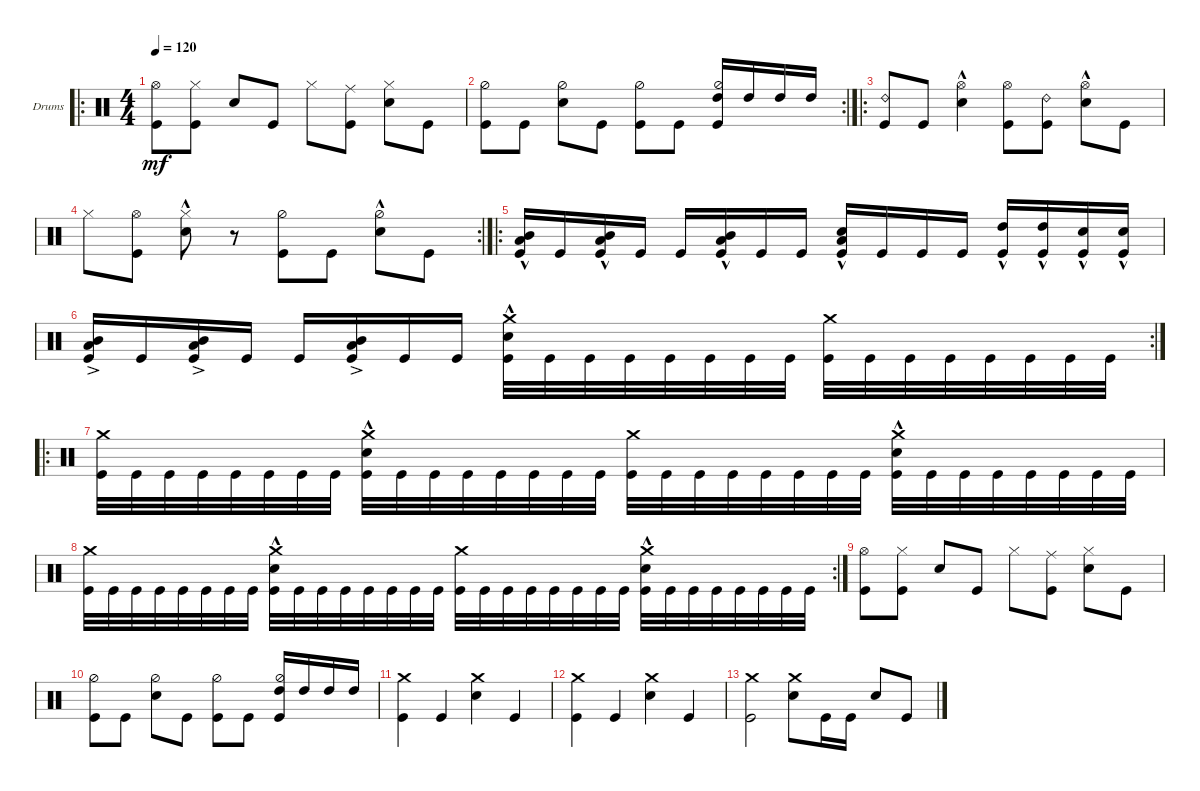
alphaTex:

\defaultSystemsLayout 4
\bracketExtendMode groupsimilarinstruments
\firstSystemTrackNameOrientation horizontal
\otherSystemsTrackNameOrientation horizontal
\track ("Drumkit" "Drums") {instrument percussion}
\staff {score}
\articulation defaults
\ro
\ts (4 4)
\tempo 120
\clef neutral
\ks c
("Hi-Hat (open)" "Kick (hit)").8{dy mf} ("Hi-Hat (closed)" "Kick (hit)").8 "Snare (hit) 2".8 "Kick (hit)".8 "Hi-Hat (closed)".8 ("Ride (middle)" "Kick (hit)").8 ("Hi-Hat (closed)" "Snare (hit) 2").8 "Kick (hit)".8 |
\rc 2
("Kick (hit)" "Hi-Hat (half)").8 "Kick (hit)".8 ("Snare (hit) 2" "Hi-Hat (half)").8 "Kick (hit)".8 ("Kick (hit)" "Hi-Hat (half)").8 "Kick (hit)".8 ("Hi-Hat (half)" "Kick (hit)" "High Tom (hit)").16 "High Tom (hit)".16 "High Tom (hit)".16 "High Tom (hit)".16 |
\ro
("Kick (hit)" "Ride (bell) 2").8 "Kick (hit)".8 ("Snare (hit) 2"{hac} "Hi-Hat (open)").4 ("Kick (hit)" "Hi-Hat (open)").8 ("Kick (hit)" "Ride (bell) 2").8 ("Hi-Hat (open)" "Snare (hit) 2"{hac}).8 "Kick (hit)".8 |
\rc 2 "Hi-Hat (closed)".8
("Hi-Hat (open)" "Kick (hit)").8 ("Snare (hit) 2"{hac} "Hi-Hat (closed)").8 r.8 ("Kick (hit)" "Hi-Hat (half)").8 "Kick (hit)".8 ("Snare (hit) 2"{hac} "Hi-Hat (half)").8 "Kick (hit)".8 |
\ro
("Kick (hit)" "Low Tom (hit)"{hac} "Mid Tom (hit)"{hac}).16 "Kick (hit)".16 ("Kick (hit)" "Low Tom (hit)"{hac} "Mid Tom (hit)"{hac}).16 "Kick (hit)".16 "Kick (hit)".16 ("Kick (hit)" "Low Tom (hit)"{hac} "Mid Tom (hit)"{hac}).16 "Kick (hit)".16 "Kick (hit)".16 ("Kick (hit)" "Snare (hit) 2"{hac} "Low Tom (hit)"{hac}).16 "Kick (hit)".16 "Kick (hit)".16 "Kick (hit)".16 ("Kick (hit)" "High Tom (hit)"{hac}).16 ("Kick (hit)" "High Tom (hit)"{hac}).16 ("Kick (hit)" "Snare (hit) 2"{hac}).16 ("Kick (hit)" "Snare (hit) 2"{hac}).16 |
\rc 2
("Kick (hit)" "Low Tom (hit)"{ac} "Mid Tom (hit)"{ac}).16 "Kick (hit)".16 ("Kick (hit)" "Low Tom (hit)"{ac} "Mid Tom (hit)"{ac}).16 "Kick (hit)".16 "Kick (hit)".16 ("Kick (hit)" "Low Tom (hit)"{ac} "Mid Tom (hit)"{ac}).16 "Kick (hit)".16 "Kick (hit)".16 ("Kick (hit)" "Crash medium (hit)" "Snare (hit) 2"{hac}).32 "Kick (hit)".32 "Kick (hit)".32 "Kick (hit)".32 "Kick (hit)".32 "Kick (hit)".32 "Kick (hit)".32 "Kick (hit)".32 ("Kick (hit)" "Crash medium (hit)").32 "Kick (hit)".32 "Kick (hit)".32 "Kick (hit)".32 "Kick (hit)".32 "Kick (hit)".32 "Kick (hit)".32 "Kick (hit)".32 |
\ro
("Kick (hit)" "Crash medium (hit)").32 "Kick (hit)".32 "Kick (hit)".32 "Kick (hit)".32 "Kick (hit)".32 "Kick (hit)".32 "Kick (hit)".32 "Kick (hit)".32 ("Kick (hit)" "Crash medium (hit)" "Snare (hit) 2"{hac}).32 "Kick (hit)".32 "Kick (hit)".32 "Kick (hit)".32 "Kick (hit)".32 "Kick (hit)".32 "Kick (hit)".32 "Kick (hit)".32 ("Kick (hit)" "Crash medium (hit)").32 "Kick (hit)".32 "Kick (hit)".32 "Kick (hit)".32 "Kick (hit)".32 "Kick (hit)".32 "Kick (hit)".32 "Kick (hit)".32 ("Kick (hit)" "Crash medium (hit)" "Snare (hit) 2"{hac}).32 "Kick (hit)".32 "Kick (hit)".32 "Kick (hit)".32 "Kick (hit)".32 "Kick (hit)".32 "Kick (hit)".32 "Kick (hit)".32 |
\rc 2
("Kick (hit)" "Crash medium (hit)").32 "Kick (hit)".32 "Kick (hit)".32 "Kick (hit)".32 "Kick (hit)".32 "Kick (hit)".32 "Kick (hit)".32 "Kick (hit)".32 ("Kick (hit)" "Crash medium (hit)" "Snare (hit) 2"{hac}).32 "Kick (hit)".32 "Kick (hit)".32 "Kick (hit)".32 "Kick (hit)".32 "Kick (hit)".32 "Kick (hit)".32 "Kick (hit)".32 ("Kick (hit)" "Crash medium (hit)").32 "Kick (hit)".32 "Kick (hit)".32 "Kick (hit)".32 "Kick (hit)".32 "Kick (hit)".32 "Kick (hit)".32 "Kick (hit)".32 ("Kick (hit)" "Crash medium (hit)" "Snare (hit) 2"{hac}).32 "Kick (hit)".32 "Kick (hit)".32 "Kick (hit)".32 "Kick (hit)".32 "Kick (hit)".32 "Kick (hit)".32 "Kick (hit)".32 |
("Hi-Hat (open)" "Kick (hit)").8 ("Hi-Hat (closed)" "Kick (hit)").8 "Snare (hit) 2".8 "Kick (hit)".8 "Hi-Hat (closed)".8 ("Ride (middle)" "Kick (hit)").8 ("Hi-Hat (closed)" "Snare (hit) 2").8 "Kick (hit)".8 |
("Kick (hit)" "Hi-Hat (half)").8 "Kick (hit)".8 ("Snare (hit) 2" "Hi-Hat (half)").8 "Kick (hit)".8 ("Kick (hit)" "Hi-Hat (half)").8 "Kick (hit)".8 ("Hi-Hat (half)" "Kick (hit)" "High Tom (hit)").16 "High Tom (hit)".16 "High Tom (hit)".16 "High Tom (hit)".16 |
("Crash medium (hit)" "Kick (hit)").4 "Kick (hit)".4 ("Crash medium (hit)" "Snare (hit) 2").4 "Kick (hit)".4 |
("Crash medium (hit)" "Kick (hit)").4 "Kick (hit)".4 ("Crash medium (hit)" "Snare (hit) 2").4 "Kick (hit)".4 |
("Crash medium (hit)" "Kick (hit)").2 ("Crash medium (hit)" "Snare (hit) 2").8 "Kick (hit)".16 "Kick (hit)".16 "Snare (hit) 2".8 "Kick (hit)".8
